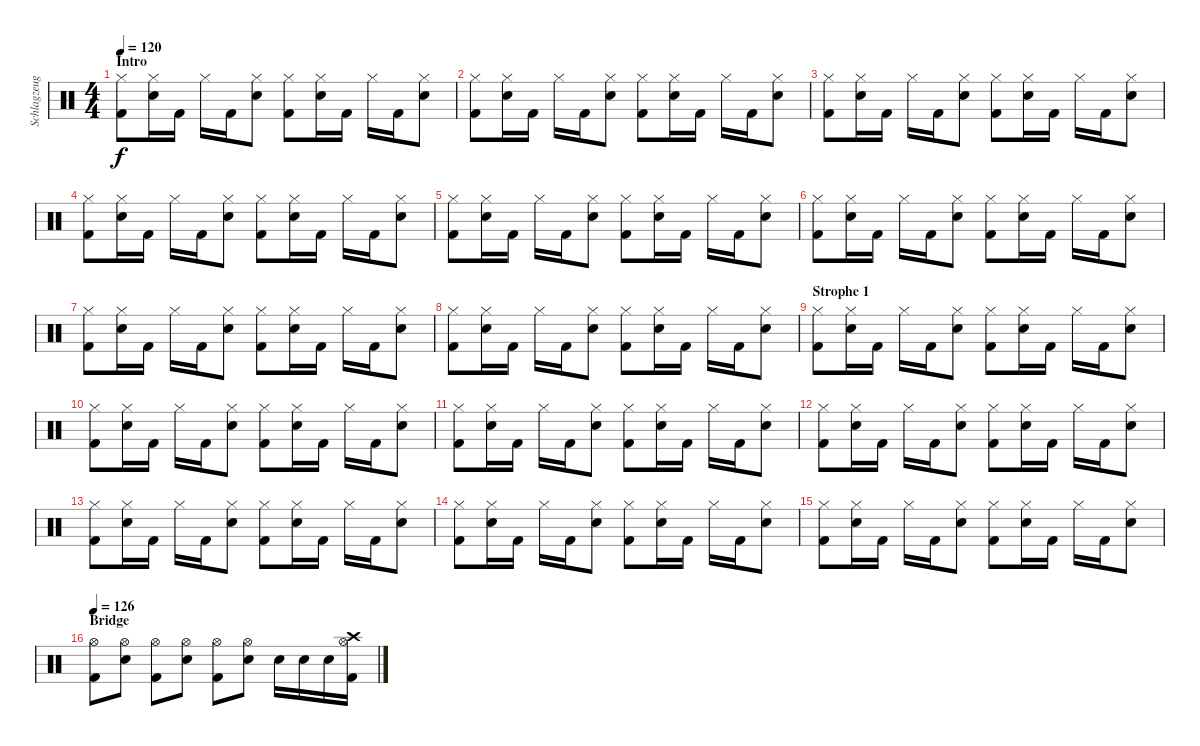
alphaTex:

\track ("Schlagzeug - Bela" "Schlagzeug") {instrument percussion}
\staff {score}
\articulation defaults
\ts (4 4)
\section ("" "Intro")
\tempo 120
\clef neutral
\ks c
("Kick (hit) 2" "Hi-Hat (closed)").8{dy f} ("Snare (hit) 2" "Hi-Hat (closed)").16 "Kick (hit) 2".16 "Hi-Hat (closed)".16 "Kick (hit) 2".16 ("Snare (hit) 2" "Hi-Hat (closed)").8 ("Kick (hit) 2" "Hi-Hat (closed)").8 ("Snare (hit) 2" "Hi-Hat (closed)").16 "Kick (hit) 2".16 "Hi-Hat (closed)".16 "Kick (hit) 2".16 ("Snare (hit) 2" "Hi-Hat (closed)").8 |
("Kick (hit) 2" "Hi-Hat (closed)").8 ("Snare (hit) 2" "Hi-Hat (closed)").16 "Kick (hit) 2".16 "Hi-Hat (closed)".16 "Kick (hit) 2".16 ("Snare (hit) 2" "Hi-Hat (closed)").8 ("Kick (hit) 2" "Hi-Hat (closed)").8 ("Snare (hit) 2" "Hi-Hat (closed)").16 "Kick (hit) 2".16 "Hi-Hat (closed)".16 "Kick (hit) 2".16 ("Snare (hit) 2" "Hi-Hat (closed)").8 |
("Kick (hit) 2" "Hi-Hat (closed)").8 ("Snare (hit) 2" "Hi-Hat (closed)").16 "Kick (hit) 2".16 "Hi-Hat (closed)".16 "Kick (hit) 2".16 ("Snare (hit) 2" "Hi-Hat (closed)").8 ("Kick (hit) 2" "Hi-Hat (closed)").8 ("Snare (hit) 2" "Hi-Hat (closed)").16 "Kick (hit) 2".16 "Hi-Hat (closed)".16 "Kick (hit) 2".16 ("Snare (hit) 2" "Hi-Hat (closed)").8 |
("Kick (hit) 2" "Hi-Hat (closed)").8 ("Snare (hit) 2" "Hi-Hat (closed)").16 "Kick (hit) 2".16 "Hi-Hat (closed)".16 "Kick (hit) 2".16 ("Snare (hit) 2" "Hi-Hat (closed)").8 ("Kick (hit) 2" "Hi-Hat (closed)").8 ("Snare (hit) 2" "Hi-Hat (closed)").16 "Kick (hit) 2".16 "Hi-Hat (closed)".16 "Kick (hit) 2".16 ("Snare (hit) 2" "Hi-Hat (closed)").8 |
("Kick (hit) 2" "Hi-Hat (closed)").8 ("Snare (hit) 2" "Hi-Hat (closed)").16 "Kick (hit) 2".16 "Hi-Hat (closed)".16 "Kick (hit) 2".16 ("Snare (hit) 2" "Hi-Hat (closed)").8 ("Kick (hit) 2" "Hi-Hat (closed)").8 ("Snare (hit) 2" "Hi-Hat (closed)").16 "Kick (hit) 2".16 "Hi-Hat (closed)".16 "Kick (hit) 2".16 ("Snare (hit) 2" "Hi-Hat (closed)").8 |
("Kick (hit) 2" "Hi-Hat (closed)").8 ("Snare (hit) 2" "Hi-Hat (closed)").16 "Kick (hit) 2".16 "Hi-Hat (closed)".16 "Kick (hit) 2".16 ("Snare (hit) 2" "Hi-Hat (closed)").8 ("Kick (hit) 2" "Hi-Hat (closed)").8 ("Snare (hit) 2" "Hi-Hat (closed)").16 "Kick (hit) 2".16 "Hi-Hat (closed)".16 "Kick (hit) 2".16 ("Snare (hit) 2" "Hi-Hat (closed)").8 |
("Kick (hit) 2" "Hi-Hat (closed)").8 ("Snare (hit) 2" "Hi-Hat (closed)").16 "Kick (hit) 2".16 "Hi-Hat (closed)".16 "Kick (hit) 2".16 ("Snare (hit) 2" "Hi-Hat (closed)").8 ("Kick (hit) 2" "Hi-Hat (closed)").8 ("Snare (hit) 2" "Hi-Hat (closed)").16 "Kick (hit) 2".16 "Hi-Hat (closed)".16 "Kick (hit) 2".16 ("Snare (hit) 2" "Hi-Hat (closed)").8 |
("Kick (hit) 2" "Hi-Hat (closed)").8 ("Snare (hit) 2" "Hi-Hat (closed)").16 "Kick (hit) 2".16 "Hi-Hat (closed)".16 "Kick (hit) 2".16 ("Snare (hit) 2" "Hi-Hat (closed)").8 ("Kick (hit) 2" "Hi-Hat (closed)").8 ("Snare (hit) 2" "Hi-Hat (closed)").16 "Kick (hit) 2".16 "Hi-Hat (closed)".16 "Kick (hit) 2".16 ("Snare (hit) 2" "Hi-Hat (closed)").8 |
\section ("" "Strophe 1")
("Kick (hit) 2" "Hi-Hat (closed)").8 ("Snare (hit) 2" "Hi-Hat (closed)").16 "Kick (hit) 2".16 "Hi-Hat (closed)".16 "Kick (hit) 2".16 ("Snare (hit) 2" "Hi-Hat (closed)").8 ("Kick (hit) 2" "Hi-Hat (closed)").8 ("Snare (hit) 2" "Hi-Hat (closed)").16 "Kick (hit) 2".16 "Hi-Hat (closed)".16 "Kick (hit) 2".16 ("Snare (hit) 2" "Hi-Hat (closed)").8 |
("Kick (hit) 2" "Hi-Hat (closed)").8 ("Snare (hit) 2" "Hi-Hat (closed)").16 "Kick (hit) 2".16 "Hi-Hat (closed)".16 "Kick (hit) 2".16 ("Snare (hit) 2" "Hi-Hat (closed)").8 ("Kick (hit) 2" "Hi-Hat (closed)").8 ("Snare (hit) 2" "Hi-Hat (closed)").16 "Kick (hit) 2".16 "Hi-Hat (closed)".16 "Kick (hit) 2".16 ("Snare (hit) 2" "Hi-Hat (closed)").8 |
("Kick (hit) 2" "Hi-Hat (closed)").8 ("Snare (hit) 2" "Hi-Hat (closed)").16 "Kick (hit) 2".16 "Hi-Hat (closed)".16 "Kick (hit) 2".16 ("Snare (hit) 2" "Hi-Hat (closed)").8 ("Kick (hit) 2" "Hi-Hat (closed)").8 ("Snare (hit) 2" "Hi-Hat (closed)").16 "Kick (hit) 2".16 "Hi-Hat (closed)".16 "Kick (hit) 2".16 ("Snare (hit) 2" "Hi-Hat (closed)").8 |
("Kick (hit) 2" "Hi-Hat (closed)").8 ("Snare (hit) 2" "Hi-Hat (closed)").16 "Kick (hit) 2".16 "Hi-Hat (closed)".16 "Kick (hit) 2".16 ("Snare (hit) 2" "Hi-Hat (closed)").8 ("Kick (hit) 2" "Hi-Hat (closed)").8 ("Snare (hit) 2" "Hi-Hat (closed)").16 "Kick (hit) 2".16 "Hi-Hat (closed)".16 "Kick (hit) 2".16 ("Snare (hit) 2" "Hi-Hat (closed)").8 |
("Kick (hit) 2" "Hi-Hat (closed)").8 ("Snare (hit) 2" "Hi-Hat (closed)").16 "Kick (hit) 2".16 "Hi-Hat (closed)".16 "Kick (hit) 2".16 ("Snare (hit) 2" "Hi-Hat (closed)").8 ("Kick (hit) 2" "Hi-Hat (closed)").8 ("Snare (hit) 2" "Hi-Hat (closed)").16 "Kick (hit) 2".16 "Hi-Hat (closed)".16 "Kick (hit) 2".16 ("Snare (hit) 2" "Hi-Hat (closed)").8 |
("Kick (hit) 2" "Hi-Hat (closed)").8 ("Snare (hit) 2" "Hi-Hat (closed)").16 "Kick (hit) 2".16 "Hi-Hat (closed)".16 "Kick (hit) 2".16 ("Snare (hit) 2" "Hi-Hat (closed)").8 ("Kick (hit) 2" "Hi-Hat (closed)").8 ("Snare (hit) 2" "Hi-Hat (closed)").16 "Kick (hit) 2".16 "Hi-Hat (closed)".16 "Kick (hit) 2".16 ("Snare (hit) 2" "Hi-Hat (closed)").8 |
("Kick (hit) 2" "Hi-Hat (closed)").8 ("Snare (hit) 2" "Hi-Hat (closed)").16 "Kick (hit) 2".16 "Hi-Hat (closed)".16 "Kick (hit) 2".16 ("Snare (hit) 2" "Hi-Hat (closed)").8 ("Kick (hit) 2" "Hi-Hat (closed)").8 ("Snare (hit) 2" "Hi-Hat (closed)").16 "Kick (hit) 2".16 "Hi-Hat (closed)".16 "Kick (hit) 2".16 ("Snare (hit) 2" "Hi-Hat (closed)").8 |
\section ("" "Bridge")
\tempo 126
("Kick (hit) 2" "Hi-Hat (open)").8 ("Snare (hit) 2" "Hi-Hat (open)").8 ("Kick (hit) 2" "Hi-Hat (open)").8 ("Snare (hit) 2" "Hi-Hat (open)").8 ("Kick (hit) 2" "Hi-Hat (open)").8 ("Snare (hit) 2" "Hi-Hat (open)").8 "Snare (hit) 2".16 "Snare (hit) 2".16 "Snare (hit) 2".16 ("Crash high (hit)" "Kick (hit) 2" "Hi-Hat (open)").16
